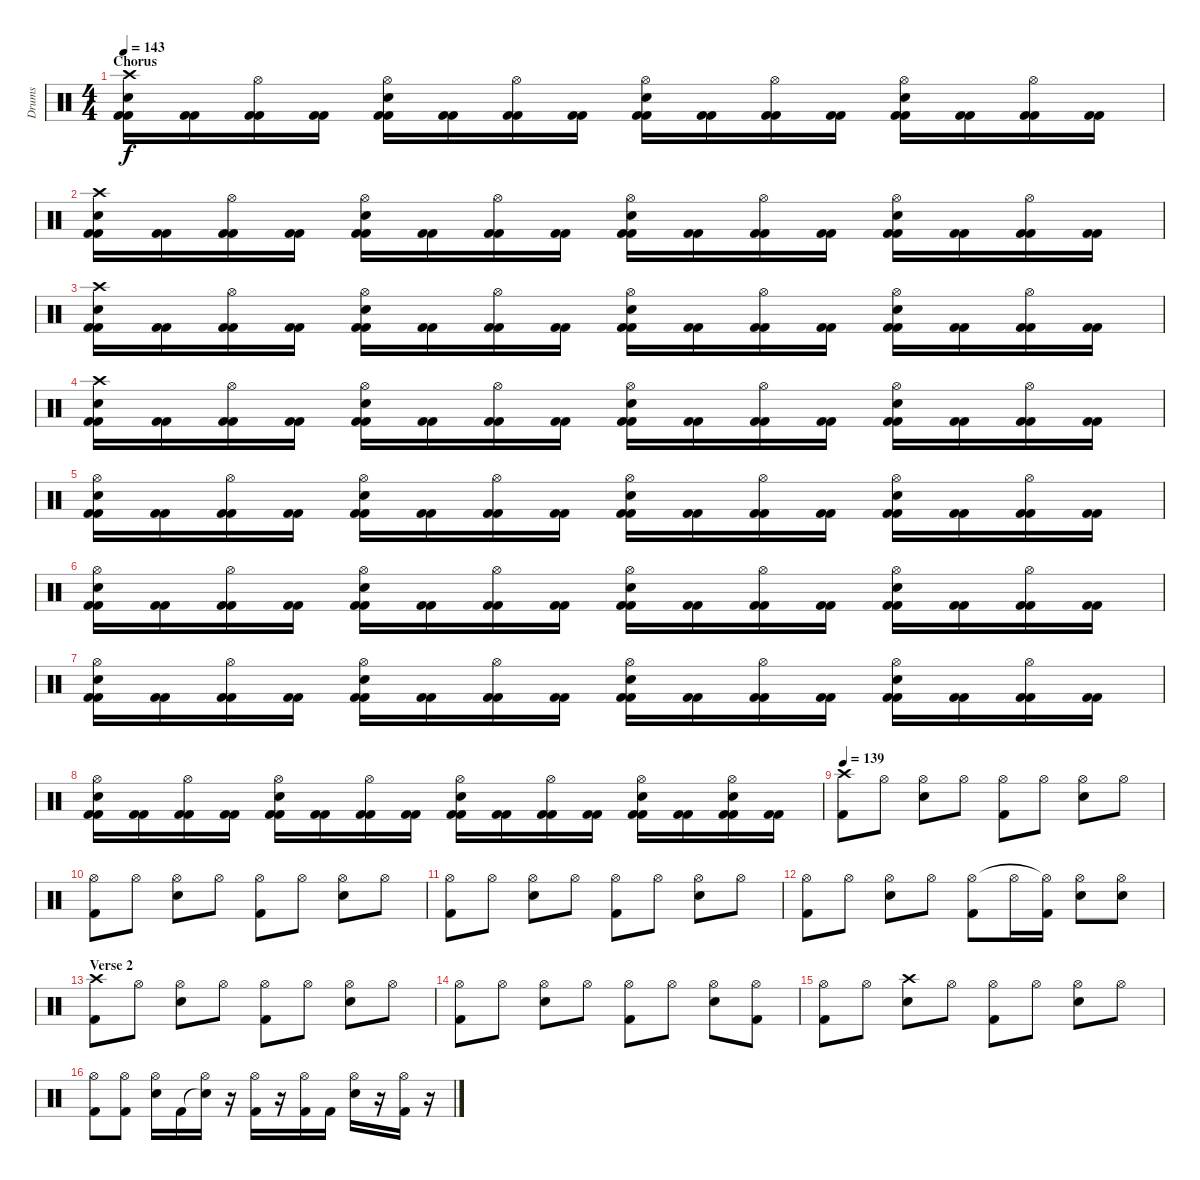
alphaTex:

\track ("Drums" "Drums") {instrument percussion}
\staff {score}
\articulation defaults
\ts (4 4)
\section ("" "Chorus")
\tempo 143
\clef neutral
\ks c
("Kick (hit) 2" "Kick (hit) 2" "Electric Snare (hit)" "Crash high (hit)").16{dy f} ("Kick (hit) 2" "Kick (hit) 2").16 ("Kick (hit) 2" "Kick (hit) 2" "Hi-Hat (open)").16 ("Kick (hit) 2" "Kick (hit) 2").16 ("Kick (hit) 2" "Kick (hit) 2" "Electric Snare (hit)" "Hi-Hat (open)").16 ("Kick (hit) 2" "Kick (hit) 2").16 ("Kick (hit) 2" "Kick (hit) 2" "Hi-Hat (open)").16 ("Kick (hit) 2" "Kick (hit) 2").16 ("Kick (hit) 2" "Kick (hit) 2" "Electric Snare (hit)" "Hi-Hat (open)").16 ("Kick (hit) 2" "Kick (hit) 2").16 ("Kick (hit) 2" "Kick (hit) 2" "Hi-Hat (open)").16 ("Kick (hit) 2" "Kick (hit) 2").16 ("Kick (hit) 2" "Kick (hit) 2" "Electric Snare (hit)" "Hi-Hat (open)").16 ("Kick (hit) 2" "Kick (hit) 2").16 ("Kick (hit) 2" "Kick (hit) 2" "Hi-Hat (open)").16 ("Kick (hit) 2" "Kick (hit) 2").16 |
("Kick (hit) 2" "Kick (hit) 2" "Electric Snare (hit)" "Crash high (hit)").16 ("Kick (hit) 2" "Kick (hit) 2").16 ("Kick (hit) 2" "Kick (hit) 2" "Hi-Hat (open)").16 ("Kick (hit) 2" "Kick (hit) 2").16 ("Kick (hit) 2" "Kick (hit) 2" "Electric Snare (hit)" "Hi-Hat (open)").16 ("Kick (hit) 2" "Kick (hit) 2").16 ("Kick (hit) 2" "Kick (hit) 2" "Hi-Hat (open)").16 ("Kick (hit) 2" "Kick (hit) 2").16 ("Kick (hit) 2" "Kick (hit) 2" "Electric Snare (hit)" "Hi-Hat (open)").16 ("Kick (hit) 2" "Kick (hit) 2").16 ("Kick (hit) 2" "Kick (hit) 2" "Hi-Hat (open)").16 ("Kick (hit) 2" "Kick (hit) 2").16 ("Kick (hit) 2" "Kick (hit) 2" "Electric Snare (hit)" "Hi-Hat (open)").16 ("Kick (hit) 2" "Kick (hit) 2").16 ("Kick (hit) 2" "Kick (hit) 2" "Hi-Hat (open)").16 ("Kick (hit) 2" "Kick (hit) 2").16 |
("Kick (hit) 2" "Kick (hit) 2" "Electric Snare (hit)" "Crash high (hit)").16 ("Kick (hit) 2" "Kick (hit) 2").16 ("Kick (hit) 2" "Kick (hit) 2" "Hi-Hat (open)").16 ("Kick (hit) 2" "Kick (hit) 2").16 ("Kick (hit) 2" "Kick (hit) 2" "Electric Snare (hit)" "Hi-Hat (open)").16 ("Kick (hit) 2" "Kick (hit) 2").16 ("Kick (hit) 2" "Kick (hit) 2" "Hi-Hat (open)").16 ("Kick (hit) 2" "Kick (hit) 2").16 ("Kick (hit) 2" "Kick (hit) 2" "Electric Snare (hit)" "Hi-Hat (open)").16 ("Kick (hit) 2" "Kick (hit) 2").16 ("Kick (hit) 2" "Kick (hit) 2" "Hi-Hat (open)").16 ("Kick (hit) 2" "Kick (hit) 2").16 ("Kick (hit) 2" "Kick (hit) 2" "Electric Snare (hit)" "Hi-Hat (open)").16 ("Kick (hit) 2" "Kick (hit) 2").16 ("Kick (hit) 2" "Kick (hit) 2" "Hi-Hat (open)").16 ("Kick (hit) 2" "Kick (hit) 2").16 |
("Kick (hit) 2" "Kick (hit) 2" "Electric Snare (hit)" "Crash high (hit)").16 ("Kick (hit) 2" "Kick (hit) 2").16 ("Kick (hit) 2" "Kick (hit) 2" "Hi-Hat (open)").16 ("Kick (hit) 2" "Kick (hit) 2").16 ("Kick (hit) 2" "Kick (hit) 2" "Electric Snare (hit)" "Hi-Hat (open)").16 ("Kick (hit) 2" "Kick (hit) 2").16 ("Kick (hit) 2" "Kick (hit) 2" "Hi-Hat (open)").16 ("Kick (hit) 2" "Kick (hit) 2").16 ("Kick (hit) 2" "Kick (hit) 2" "Electric Snare (hit)" "Hi-Hat (open)").16 ("Kick (hit) 2" "Kick (hit) 2").16 ("Kick (hit) 2" "Kick (hit) 2" "Hi-Hat (open)").16 ("Kick (hit) 2" "Kick (hit) 2").16 ("Kick (hit) 2" "Kick (hit) 2" "Electric Snare (hit)" "Hi-Hat (open)").16 ("Kick (hit) 2" "Kick (hit) 2").16 ("Kick (hit) 2" "Kick (hit) 2" "Hi-Hat (open)").16 ("Kick (hit) 2" "Kick (hit) 2").16 |
("Kick (hit) 2" "Kick (hit) 2" "Electric Snare (hit)" "Hi-Hat (open)").16 ("Kick (hit) 2" "Kick (hit) 2").16 ("Kick (hit) 2" "Kick (hit) 2" "Hi-Hat (open)").16 ("Kick (hit) 2" "Kick (hit) 2").16 ("Kick (hit) 2" "Kick (hit) 2" "Electric Snare (hit)" "Hi-Hat (open)").16 ("Kick (hit) 2" "Kick (hit) 2").16 ("Kick (hit) 2" "Kick (hit) 2" "Hi-Hat (open)").16 ("Kick (hit) 2" "Kick (hit) 2").16 ("Kick (hit) 2" "Kick (hit) 2" "Electric Snare (hit)" "Hi-Hat (open)").16 ("Kick (hit) 2" "Kick (hit) 2").16 ("Kick (hit) 2" "Kick (hit) 2" "Hi-Hat (open)").16 ("Kick (hit) 2" "Kick (hit) 2").16 ("Kick (hit) 2" "Kick (hit) 2" "Electric Snare (hit)" "Hi-Hat (open)").16 ("Kick (hit) 2" "Kick (hit) 2").16 ("Kick (hit) 2" "Kick (hit) 2" "Hi-Hat (open)").16 ("Kick (hit) 2" "Kick (hit) 2").16 |
("Kick (hit) 2" "Kick (hit) 2" "Electric Snare (hit)" "Hi-Hat (open)").16 ("Kick (hit) 2" "Kick (hit) 2").16 ("Kick (hit) 2" "Kick (hit) 2" "Hi-Hat (open)").16 ("Kick (hit) 2" "Kick (hit) 2").16 ("Kick (hit) 2" "Kick (hit) 2" "Electric Snare (hit)" "Hi-Hat (open)").16 ("Kick (hit) 2" "Kick (hit) 2").16 ("Kick (hit) 2" "Kick (hit) 2" "Hi-Hat (open)").16 ("Kick (hit) 2" "Kick (hit) 2").16 ("Kick (hit) 2" "Kick (hit) 2" "Electric Snare (hit)" "Hi-Hat (open)").16 ("Kick (hit) 2" "Kick (hit) 2").16 ("Kick (hit) 2" "Kick (hit) 2" "Hi-Hat (open)").16 ("Kick (hit) 2" "Kick (hit) 2").16 ("Kick (hit) 2" "Kick (hit) 2" "Electric Snare (hit)" "Hi-Hat (open)").16 ("Kick (hit) 2" "Kick (hit) 2").16 ("Kick (hit) 2" "Kick (hit) 2" "Hi-Hat (open)").16 ("Kick (hit) 2" "Kick (hit) 2").16 |
("Kick (hit) 2" "Kick (hit) 2" "Electric Snare (hit)" "Hi-Hat (open)").16 ("Kick (hit) 2" "Kick (hit) 2").16 ("Kick (hit) 2" "Kick (hit) 2" "Hi-Hat (open)").16 ("Kick (hit) 2" "Kick (hit) 2").16 ("Kick (hit) 2" "Kick (hit) 2" "Electric Snare (hit)" "Hi-Hat (open)").16 ("Kick (hit) 2" "Kick (hit) 2").16 ("Kick (hit) 2" "Kick (hit) 2" "Hi-Hat (open)").16 ("Kick (hit) 2" "Kick (hit) 2").16 ("Kick (hit) 2" "Kick (hit) 2" "Electric Snare (hit)" "Hi-Hat (open)").16 ("Kick (hit) 2" "Kick (hit) 2").16 ("Kick (hit) 2" "Kick (hit) 2" "Hi-Hat (open)").16 ("Kick (hit) 2" "Kick (hit) 2").16 ("Kick (hit) 2" "Kick (hit) 2" "Electric Snare (hit)" "Hi-Hat (open)").16 ("Kick (hit) 2" "Kick (hit) 2").16 ("Kick (hit) 2" "Kick (hit) 2" "Hi-Hat (open)").16 ("Kick (hit) 2" "Kick (hit) 2").16 |
("Kick (hit) 2" "Kick (hit) 2" "Electric Snare (hit)" "Hi-Hat (open)").16 ("Kick (hit) 2" "Kick (hit) 2").16 ("Kick (hit) 2" "Kick (hit) 2" "Hi-Hat (open)").16 ("Kick (hit) 2" "Kick (hit) 2").16 ("Kick (hit) 2" "Kick (hit) 2" "Electric Snare (hit)" "Hi-Hat (open)").16 ("Kick (hit) 2" "Kick (hit) 2").16 ("Kick (hit) 2" "Kick (hit) 2" "Hi-Hat (open)").16 ("Kick (hit) 2" "Kick (hit) 2").16 ("Kick (hit) 2" "Kick (hit) 2" "Electric Snare (hit)" "Hi-Hat (open)").16 ("Kick (hit) 2" "Kick (hit) 2").16 ("Kick (hit) 2" "Kick (hit) 2" "Hi-Hat (open)").16 ("Kick (hit) 2" "Kick (hit) 2").16 ("Kick (hit) 2" "Kick (hit) 2" "Electric Snare (hit)" "Hi-Hat (open)").16 ("Kick (hit) 2" "Kick (hit) 2").16 ("Kick (hit) 2" "Kick (hit) 2" "Electric Snare (hit)" "Hi-Hat (open)").16 ("Kick (hit) 2" "Kick (hit) 2").16 |
\tempo 139
("Kick (hit) 2" "Crash high (hit)").8 "Hi-Hat (open)".8 ("Electric Snare (hit)" "Hi-Hat (open)").8 "Hi-Hat (open)".8 ("Kick (hit) 2" "Hi-Hat (open)").8 "Hi-Hat (open)".8 ("Electric Snare (hit)" "Hi-Hat (open)").8 "Hi-Hat (open)".8 |
("Kick (hit) 2" "Hi-Hat (open)").8 "Hi-Hat (open)".8 ("Electric Snare (hit)" "Hi-Hat (open)").8 "Hi-Hat (open)".8 ("Kick (hit) 2" "Hi-Hat (open)").8 "Hi-Hat (open)".8 ("Electric Snare (hit)" "Hi-Hat (open)").8 "Hi-Hat (open)".8 |
("Kick (hit) 2" "Hi-Hat (open)").8 "Hi-Hat (open)".8 ("Electric Snare (hit)" "Hi-Hat (open)").8 "Hi-Hat (open)".8 ("Kick (hit) 2" "Hi-Hat (open)").8 "Hi-Hat (open)".8 ("Electric Snare (hit)" "Hi-Hat (open)").8 "Hi-Hat (open)".8 |
("Kick (hit) 2" "Hi-Hat (open)").8 "Hi-Hat (open)".8 ("Electric Snare (hit)" "Hi-Hat (open)").8 "Hi-Hat (open)".8 ("Kick (hit) 2" "Hi-Hat (open)").8 "Hi-Hat (open)".16 ("Kick (hit) 2" "Hi-Hat (open)"{t}).16 ("Electric Snare (hit)" "Hi-Hat (open)").8 ("Electric Snare (hit)" "Hi-Hat (open)").8 |
\section ("" "Verse 2")
("Kick (hit) 2" "Crash high (hit)").8 "Hi-Hat (open)".8 ("Electric Snare (hit)" "Hi-Hat (open)").8 "Hi-Hat (open)".8 ("Kick (hit) 2" "Hi-Hat (open)").8 "Hi-Hat (open)".8 ("Electric Snare (hit)" "Hi-Hat (open)").8 "Hi-Hat (open)".8 |
("Kick (hit) 2" "Hi-Hat (open)").8 "Hi-Hat (open)".8 ("Electric Snare (hit)" "Hi-Hat (open)").8 "Hi-Hat (open)".8 ("Kick (hit) 2" "Hi-Hat (open)").8 "Hi-Hat (open)".8 ("Electric Snare (hit)" "Hi-Hat (open)").8 ("Kick (hit) 2" "Hi-Hat (open)").8 |
("Kick (hit) 2" "Hi-Hat (open)").8 "Hi-Hat (open)".8 ("Electric Snare (hit)" "Crash high (hit)").8 "Hi-Hat (open)".8 ("Kick (hit) 2" "Hi-Hat (open)").8 "Hi-Hat (open)".8 ("Electric Snare (hit)" "Hi-Hat (open)").8 "Hi-Hat (open)".8 |
("Kick (hit) 2" "Hi-Hat (open)").8 ("Kick (hit) 2" "Hi-Hat (open)").8 ("Electric Snare (hit)" "Hi-Hat (open)").16 "Kick (hit) 2".16 ("Snare (hit)"{t} "Hi-Hat (open)").16 r.16 ("Kick (hit) 2" "Hi-Hat (open)").16 r.16 ("Kick (hit) 2" "Hi-Hat (open)").16 "Kick (hit) 2".16 ("Electric Snare (hit)" "Hi-Hat (open)").16 r.16 ("Kick (hit) 2" "Hi-Hat (open)").16 r.16
